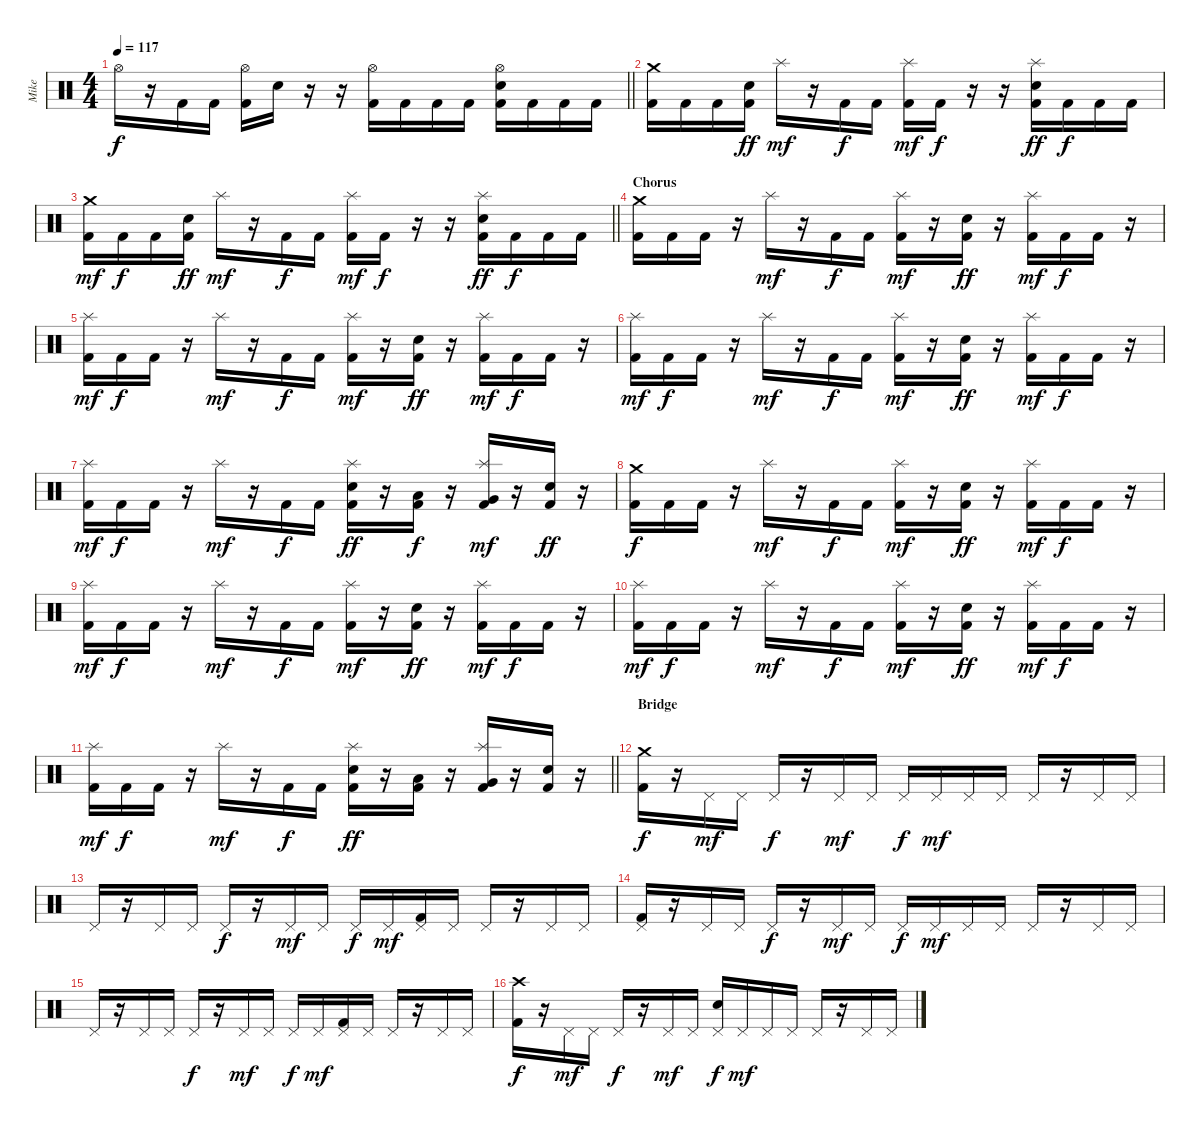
\track ("Mike" "Mike") {instrument percussion}
\staff {score}
\articulation defaults
\ts (4 4)
\tempo 117
\clef neutral
\barLineRight lightlight
\ks c "Hi-Hat (open)".16{dy f}
r.16 "Kick (hit) 2".16 "Kick (hit) 2".16 ("Hi-Hat (open)" "Kick (hit) 2").16 "Snare (hit) 2".16 r.16 r.16 ("Hi-Hat (open)" "Kick (hit) 2").16 "Kick (hit) 2".16 "Kick (hit) 2".16 "Kick (hit) 2".16 ("Hi-Hat (open)" "Snare (hit) 2" "Kick (hit) 2").16 "Kick (hit) 2".16 "Kick (hit) 2".16 "Kick (hit) 2".16 |
("Crash medium (hit)" "Kick (hit) 2").16 "Kick (hit) 2".16 "Kick (hit) 2".16 ("Snare (hit) 2" "Kick (hit) 2").16{dy ff} "Splash (hit)".16{dy mf} r.16 "Kick (hit) 2".16{dy f} "Kick (hit) 2".16 ("Splash (hit)" "Kick (hit) 2").16{dy mf} "Kick (hit) 2".16{dy f} r.16 r.16 ("Splash (hit)" "Snare (hit) 2" "Kick (hit) 2").16{dy ff} "Kick (hit) 2".16{dy f} "Kick (hit) 2".16 "Kick (hit) 2".16 |
\barLineRight lightlight
("Crash medium (hit)" "Kick (hit) 2").16{dy mf} "Kick (hit) 2".16{dy f} "Kick (hit) 2".16 ("Snare (hit) 2" "Kick (hit) 2").16{dy ff} "Splash (hit)".16{dy mf} r.16 "Kick (hit) 2".16{dy f} "Kick (hit) 2".16 ("Splash (hit)" "Kick (hit) 2").16{dy mf} "Kick (hit) 2".16{dy f} r.16 r.16 ("Splash (hit)" "Snare (hit) 2" "Kick (hit) 2").16{dy ff} "Kick (hit) 2".16{dy f} "Kick (hit) 2".16 "Kick (hit) 2".16 |
\section ("" "Chorus")
("Crash medium (hit)" "Kick (hit) 2").16 "Kick (hit) 2".16 "Kick (hit) 2".16 r.16 "Splash (hit)".16{dy mf} r.16 "Kick (hit) 2".16{dy f} "Kick (hit) 2".16 ("Splash (hit)" "Kick (hit) 2").16{dy mf} r.16 ("Snare (hit) 2" "Kick (hit) 2").16{dy ff} r.16 ("Splash (hit)" "Kick (hit) 2").16{dy mf} "Kick (hit) 2".16{dy f} "Kick (hit) 2".16 r.16 |
("Splash (hit)" "Kick (hit) 2").16{dy mf} "Kick (hit) 2".16{dy f} "Kick (hit) 2".16 r.16 "Splash (hit)".16{dy mf} r.16 "Kick (hit) 2".16{dy f} "Kick (hit) 2".16 ("Splash (hit)" "Kick (hit) 2").16{dy mf} r.16 ("Snare (hit) 2" "Kick (hit) 2").16{dy ff} r.16 ("Splash (hit)" "Kick (hit) 2").16{dy mf} "Kick (hit) 2".16{dy f} "Kick (hit) 2".16 r.16 |
("Splash (hit)" "Kick (hit) 2").16{dy mf} "Kick (hit) 2".16{dy f} "Kick (hit) 2".16 r.16 "Splash (hit)".16{dy mf} r.16 "Kick (hit) 2".16{dy f} "Kick (hit) 2".16 ("Splash (hit)" "Kick (hit) 2").16{dy mf} r.16 ("Snare (hit) 2" "Kick (hit) 2").16{dy ff} r.16 ("Splash (hit)" "Kick (hit) 2").16{dy mf} "Kick (hit) 2".16{dy f} "Kick (hit) 2".16 r.16 |
("Splash (hit)" "Kick (hit) 2").16{dy mf} "Kick (hit) 2".16{dy f} "Kick (hit) 2".16 r.16 "Splash (hit)".16{dy mf} r.16 "Kick (hit) 2".16{dy f} "Kick (hit) 2".16 ("Splash (hit)" "Snare (hit) 2" "Kick (hit) 2").16{dy ff} r.16 ("Low Tom (hit)" "Kick (hit) 2").16{dy f} r.16 ("Splash (hit)" "Very Low Tom (hit)" "Kick (hit) 2").16{dy mf} r.16 ("Snare (hit) 2" "Kick (hit) 2").16{dy ff} r.16 |
("Crash medium (hit)" "Kick (hit) 2").16{dy f} "Kick (hit) 2".16 "Kick (hit) 2".16 r.16 "Splash (hit)".16{dy mf} r.16 "Kick (hit) 2".16{dy f} "Kick (hit) 2".16 ("Splash (hit)" "Kick (hit) 2").16{dy mf} r.16 ("Snare (hit) 2" "Kick (hit) 2").16{dy ff} r.16 ("Splash (hit)" "Kick (hit) 2").16{dy mf} "Kick (hit) 2".16{dy f} "Kick (hit) 2".16 r.16 |
("Splash (hit)" "Kick (hit) 2").16{dy mf} "Kick (hit) 2".16{dy f} "Kick (hit) 2".16 r.16 "Splash (hit)".16{dy mf} r.16 "Kick (hit) 2".16{dy f} "Kick (hit) 2".16 ("Splash (hit)" "Kick (hit) 2").16{dy mf} r.16 ("Snare (hit) 2" "Kick (hit) 2").16{dy ff} r.16 ("Splash (hit)" "Kick (hit) 2").16{dy mf} "Kick (hit) 2".16{dy f} "Kick (hit) 2".16 r.16 |
("Splash (hit)" "Kick (hit) 2").16{dy mf} "Kick (hit) 2".16{dy f} "Kick (hit) 2".16 r.16 "Splash (hit)".16{dy mf} r.16 "Kick (hit) 2".16{dy f} "Kick (hit) 2".16 ("Splash (hit)" "Kick (hit) 2").16{dy mf} r.16 ("Snare (hit) 2" "Kick (hit) 2").16{dy ff} r.16 ("Splash (hit)" "Kick (hit) 2").16{dy mf} "Kick (hit) 2".16{dy f} "Kick (hit) 2".16 r.16 |
\barLineRight lightlight
("Splash (hit)" "Kick (hit) 2").16{dy mf} "Kick (hit) 2".16{dy f} "Kick (hit) 2".16 r.16 "Splash (hit)".16{dy mf} r.16 "Kick (hit) 2".16{dy f} "Kick (hit) 2".16 ("Splash (hit)" "Snare (hit) 2" "Kick (hit) 2").16{dy ff} r.16 ("Low Tom (hit)" "Kick (hit) 2").16 r.16 ("Splash (hit)" "Very Low Tom (hit)" "Kick (hit) 2").16 r.16 ("Snare (hit) 2" "Kick (hit) 2").16 r.16 |
\section ("" "Bridge")
("Crash medium (hit)" "Kick (hit) 2").16{dy f} r.16 "Pedal Hi-Hat (hit)".16{dy mf} "Pedal Hi-Hat (hit)".16 "Pedal Hi-Hat (hit)".16{dy f} r.16 "Pedal Hi-Hat (hit)".16{dy mf} "Pedal Hi-Hat (hit)".16 "Pedal Hi-Hat (hit)".16{dy f} "Pedal Hi-Hat (hit)".16{dy mf} "Pedal Hi-Hat (hit)".16 "Pedal Hi-Hat (hit)".16 "Pedal Hi-Hat (hit)".16 r.16 "Pedal Hi-Hat (hit)".16 "Pedal Hi-Hat (hit)".16 |
"Pedal Hi-Hat (hit)".16 r.16 "Pedal Hi-Hat (hit)".16 "Pedal Hi-Hat (hit)".16 "Pedal Hi-Hat (hit)".16{dy f} r.16 "Pedal Hi-Hat (hit)".16{dy mf} "Pedal Hi-Hat (hit)".16 "Pedal Hi-Hat (hit)".16{dy f} "Pedal Hi-Hat (hit)".16{dy mf} ("Pedal Hi-Hat (hit)" "Kick (hit) 2").16 "Pedal Hi-Hat (hit)".16 "Pedal Hi-Hat (hit)".16 r.16 "Pedal Hi-Hat (hit)".16 "Pedal Hi-Hat (hit)".16 |
("Pedal Hi-Hat (hit)" "Kick (hit) 2").16 r.16 "Pedal Hi-Hat (hit)".16 "Pedal Hi-Hat (hit)".16 "Pedal Hi-Hat (hit)".16{dy f} r.16 "Pedal Hi-Hat (hit)".16{dy mf} "Pedal Hi-Hat (hit)".16 "Pedal Hi-Hat (hit)".16{dy f} "Pedal Hi-Hat (hit)".16{dy mf} "Pedal Hi-Hat (hit)".16 "Pedal Hi-Hat (hit)".16 "Pedal Hi-Hat (hit)".16 r.16 "Pedal Hi-Hat (hit)".16 "Pedal Hi-Hat (hit)".16 |
"Pedal Hi-Hat (hit)".16 r.16 "Pedal Hi-Hat (hit)".16 "Pedal Hi-Hat (hit)".16 "Pedal Hi-Hat (hit)".16{dy f} r.16 "Pedal Hi-Hat (hit)".16{dy mf} "Pedal Hi-Hat (hit)".16 "Pedal Hi-Hat (hit)".16{dy f} "Pedal Hi-Hat (hit)".16{dy mf} ("Pedal Hi-Hat (hit)" "Kick (hit) 2").16 "Pedal Hi-Hat (hit)".16 "Pedal Hi-Hat (hit)".16 r.16 "Pedal Hi-Hat (hit)".16 "Pedal Hi-Hat (hit)".16 |
("Crash high (hit)" "Kick (hit) 2").16{dy f} r.16 "Pedal Hi-Hat (hit)".16{dy mf} "Pedal Hi-Hat (hit)".16 "Pedal Hi-Hat (hit)".16{dy f} r.16 "Pedal Hi-Hat (hit)".16{dy mf} "Pedal Hi-Hat (hit)".16 ("Pedal Hi-Hat (hit)" "Snare (hit) 2").16{dy f} "Pedal Hi-Hat (hit)".16{dy mf} "Pedal Hi-Hat (hit)".16 "Pedal Hi-Hat (hit)".16 "Pedal Hi-Hat (hit)".16 r.16 "Pedal Hi-Hat (hit)".16 "Pedal Hi-Hat (hit)".16
